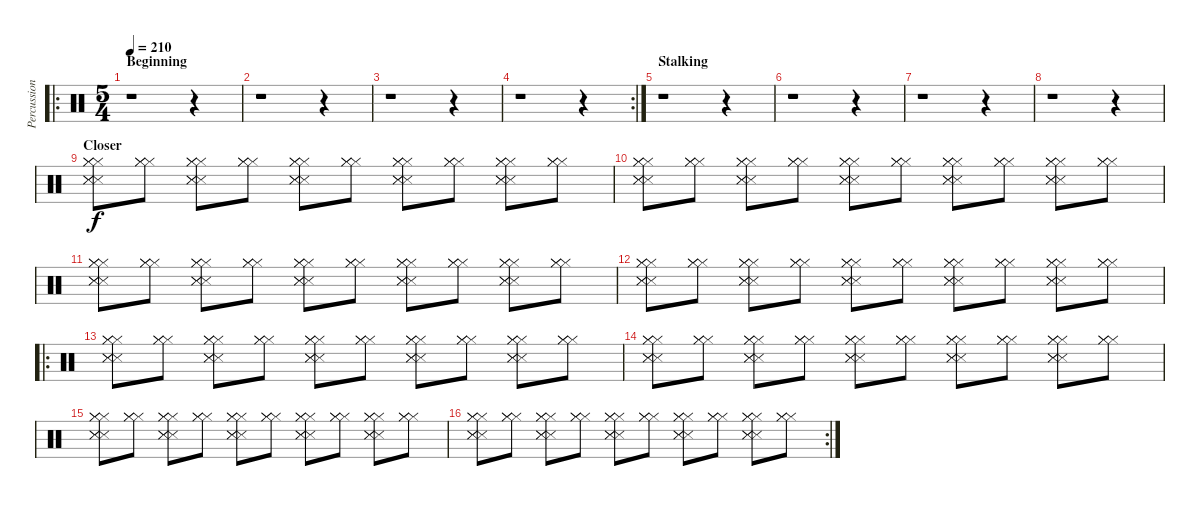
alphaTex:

\track ("Percussion" "Percussion") {instrument percussion}
\staff {score}
\articulation defaults
\ro
\ts (5 4)
\section ("" "Beginning")
\tempo 210
\clef neutral
\ks c
r.1{dy f} r.4 |
r.1 r.4 |
r.1 r.4 |
\rc 2
r.1 r.4 |
\section ("" "Stalking")
r.1 r.4 |
r.1 r.4 |
r.1 r.4 |
r.1 r.4 |
\section ("" "Closer")
("Hi-Hat (closed)" "Hi-Hat (closed)" "Hi-Hat (closed)" "Snare (side stick) 3" "Snare (side stick) 3" "Snare (side stick) 3").8 ("Hi-Hat (closed)" "Hi-Hat (closed)" "Hi-Hat (closed)").8 ("Hi-Hat (closed)" "Hi-Hat (closed)" "Hi-Hat (closed)" "Snare (side stick) 3" "Snare (side stick) 3" "Snare (side stick) 3").8 ("Hi-Hat (closed)" "Hi-Hat (closed)" "Hi-Hat (closed)").8 ("Hi-Hat (closed)" "Hi-Hat (closed)" "Hi-Hat (closed)" "Snare (side stick) 3" "Snare (side stick) 3" "Snare (side stick) 3").8 ("Hi-Hat (closed)" "Hi-Hat (closed)" "Hi-Hat (closed)").8 ("Hi-Hat (closed)" "Hi-Hat (closed)" "Hi-Hat (closed)" "Snare (side stick) 3" "Snare (side stick) 3" "Snare (side stick) 3").8 ("Hi-Hat (closed)" "Hi-Hat (closed)" "Hi-Hat (closed)").8 ("Hi-Hat (closed)" "Hi-Hat (closed)" "Hi-Hat (closed)" "Snare (side stick) 3" "Snare (side stick) 3" "Snare (side stick) 3").8 ("Hi-Hat (closed)" "Hi-Hat (closed)" "Hi-Hat (closed)").8 |
("Hi-Hat (closed)" "Hi-Hat (closed)" "Hi-Hat (closed)" "Snare (side stick) 3" "Snare (side stick) 3" "Snare (side stick) 3").8 ("Hi-Hat (closed)" "Hi-Hat (closed)" "Hi-Hat (closed)").8 ("Hi-Hat (closed)" "Hi-Hat (closed)" "Hi-Hat (closed)" "Snare (side stick) 3" "Snare (side stick) 3" "Snare (side stick) 3").8 ("Hi-Hat (closed)" "Hi-Hat (closed)" "Hi-Hat (closed)").8 ("Hi-Hat (closed)" "Hi-Hat (closed)" "Hi-Hat (closed)" "Snare (side stick) 3" "Snare (side stick) 3" "Snare (side stick) 3").8 ("Hi-Hat (closed)" "Hi-Hat (closed)" "Hi-Hat (closed)").8 ("Hi-Hat (closed)" "Hi-Hat (closed)" "Hi-Hat (closed)" "Snare (side stick) 3" "Snare (side stick) 3" "Snare (side stick) 3").8 ("Hi-Hat (closed)" "Hi-Hat (closed)" "Hi-Hat (closed)").8 ("Hi-Hat (closed)" "Hi-Hat (closed)" "Hi-Hat (closed)" "Snare (side stick) 3" "Snare (side stick) 3" "Snare (side stick) 3").8 ("Hi-Hat (closed)" "Hi-Hat (closed)" "Hi-Hat (closed)").8 |
("Hi-Hat (closed)" "Hi-Hat (closed)" "Hi-Hat (closed)" "Snare (side stick) 3" "Snare (side stick) 3" "Snare (side stick) 3").8 ("Hi-Hat (closed)" "Hi-Hat (closed)" "Hi-Hat (closed)").8 ("Hi-Hat (closed)" "Hi-Hat (closed)" "Hi-Hat (closed)" "Snare (side stick) 3" "Snare (side stick) 3" "Snare (side stick) 3").8 ("Hi-Hat (closed)" "Hi-Hat (closed)" "Hi-Hat (closed)").8 ("Hi-Hat (closed)" "Hi-Hat (closed)" "Hi-Hat (closed)" "Snare (side stick) 3" "Snare (side stick) 3" "Snare (side stick) 3").8 ("Hi-Hat (closed)" "Hi-Hat (closed)" "Hi-Hat (closed)").8 ("Hi-Hat (closed)" "Hi-Hat (closed)" "Hi-Hat (closed)" "Snare (side stick) 3" "Snare (side stick) 3" "Snare (side stick) 3").8 ("Hi-Hat (closed)" "Hi-Hat (closed)" "Hi-Hat (closed)").8 ("Hi-Hat (closed)" "Hi-Hat (closed)" "Hi-Hat (closed)" "Snare (side stick) 3" "Snare (side stick) 3" "Snare (side stick) 3").8 ("Hi-Hat (closed)" "Hi-Hat (closed)" "Hi-Hat (closed)").8 |
("Hi-Hat (closed)" "Hi-Hat (closed)" "Hi-Hat (closed)" "Snare (side stick) 3" "Snare (side stick) 3" "Snare (side stick) 3").8 ("Hi-Hat (closed)" "Hi-Hat (closed)" "Hi-Hat (closed)").8 ("Hi-Hat (closed)" "Hi-Hat (closed)" "Hi-Hat (closed)" "Snare (side stick) 3" "Snare (side stick) 3" "Snare (side stick) 3").8 ("Hi-Hat (closed)" "Hi-Hat (closed)" "Hi-Hat (closed)").8 ("Hi-Hat (closed)" "Hi-Hat (closed)" "Hi-Hat (closed)" "Snare (side stick) 3" "Snare (side stick) 3" "Snare (side stick) 3").8 ("Hi-Hat (closed)" "Hi-Hat (closed)" "Hi-Hat (closed)").8 ("Hi-Hat (closed)" "Hi-Hat (closed)" "Hi-Hat (closed)" "Snare (side stick) 3" "Snare (side stick) 3" "Snare (side stick) 3").8 ("Hi-Hat (closed)" "Hi-Hat (closed)" "Hi-Hat (closed)").8 ("Hi-Hat (closed)" "Hi-Hat (closed)" "Hi-Hat (closed)" "Snare (side stick) 3" "Snare (side stick) 3" "Snare (side stick) 3").8 ("Hi-Hat (closed)" "Hi-Hat (closed)" "Hi-Hat (closed)").8 |
\ro
("Hi-Hat (closed)" "Hi-Hat (closed)" "Hi-Hat (closed)" "Snare (side stick) 3" "Snare (side stick) 3" "Snare (side stick) 3").8 ("Hi-Hat (closed)" "Hi-Hat (closed)" "Hi-Hat (closed)").8 ("Hi-Hat (closed)" "Hi-Hat (closed)" "Hi-Hat (closed)" "Snare (side stick) 3" "Snare (side stick) 3" "Snare (side stick) 3").8 ("Hi-Hat (closed)" "Hi-Hat (closed)" "Hi-Hat (closed)").8 ("Hi-Hat (closed)" "Hi-Hat (closed)" "Hi-Hat (closed)" "Snare (side stick) 3" "Snare (side stick) 3" "Snare (side stick) 3").8 ("Hi-Hat (closed)" "Hi-Hat (closed)" "Hi-Hat (closed)").8 ("Hi-Hat (closed)" "Hi-Hat (closed)" "Hi-Hat (closed)" "Snare (side stick) 3" "Snare (side stick) 3" "Snare (side stick) 3").8 ("Hi-Hat (closed)" "Hi-Hat (closed)" "Hi-Hat (closed)").8 ("Hi-Hat (closed)" "Hi-Hat (closed)" "Hi-Hat (closed)" "Snare (side stick) 3" "Snare (side stick) 3" "Snare (side stick) 3").8 ("Hi-Hat (closed)" "Hi-Hat (closed)" "Hi-Hat (closed)").8 |
("Hi-Hat (closed)" "Hi-Hat (closed)" "Hi-Hat (closed)" "Snare (side stick) 3" "Snare (side stick) 3" "Snare (side stick) 3").8 ("Hi-Hat (closed)" "Hi-Hat (closed)" "Hi-Hat (closed)").8 ("Hi-Hat (closed)" "Hi-Hat (closed)" "Hi-Hat (closed)" "Snare (side stick) 3" "Snare (side stick) 3" "Snare (side stick) 3").8 ("Hi-Hat (closed)" "Hi-Hat (closed)" "Hi-Hat (closed)").8 ("Hi-Hat (closed)" "Hi-Hat (closed)" "Hi-Hat (closed)" "Snare (side stick) 3" "Snare (side stick) 3" "Snare (side stick) 3").8 ("Hi-Hat (closed)" "Hi-Hat (closed)" "Hi-Hat (closed)").8 ("Hi-Hat (closed)" "Hi-Hat (closed)" "Hi-Hat (closed)" "Snare (side stick) 3" "Snare (side stick) 3" "Snare (side stick) 3").8 ("Hi-Hat (closed)" "Hi-Hat (closed)" "Hi-Hat (closed)").8 ("Hi-Hat (closed)" "Hi-Hat (closed)" "Hi-Hat (closed)" "Snare (side stick) 3" "Snare (side stick) 3" "Snare (side stick) 3").8 ("Hi-Hat (closed)" "Hi-Hat (closed)" "Hi-Hat (closed)").8 |
("Hi-Hat (closed)" "Hi-Hat (closed)" "Hi-Hat (closed)" "Snare (side stick) 3" "Snare (side stick) 3" "Snare (side stick) 3").8 ("Hi-Hat (closed)" "Hi-Hat (closed)" "Hi-Hat (closed)").8 ("Hi-Hat (closed)" "Hi-Hat (closed)" "Hi-Hat (closed)" "Snare (side stick) 3" "Snare (side stick) 3" "Snare (side stick) 3").8 ("Hi-Hat (closed)" "Hi-Hat (closed)" "Hi-Hat (closed)").8 ("Hi-Hat (closed)" "Hi-Hat (closed)" "Hi-Hat (closed)" "Snare (side stick) 3" "Snare (side stick) 3" "Snare (side stick) 3").8 ("Hi-Hat (closed)" "Hi-Hat (closed)" "Hi-Hat (closed)").8 ("Hi-Hat (closed)" "Hi-Hat (closed)" "Hi-Hat (closed)" "Snare (side stick) 3" "Snare (side stick) 3" "Snare (side stick) 3").8 ("Hi-Hat (closed)" "Hi-Hat (closed)" "Hi-Hat (closed)").8 ("Hi-Hat (closed)" "Hi-Hat (closed)" "Hi-Hat (closed)" "Snare (side stick) 3" "Snare (side stick) 3" "Snare (side stick) 3").8 ("Hi-Hat (closed)" "Hi-Hat (closed)" "Hi-Hat (closed)").8 |
\rc 2
("Hi-Hat (closed)" "Hi-Hat (closed)" "Hi-Hat (closed)" "Snare (side stick) 3" "Snare (side stick) 3" "Snare (side stick) 3").8 ("Hi-Hat (closed)" "Hi-Hat (closed)" "Hi-Hat (closed)").8 ("Hi-Hat (closed)" "Hi-Hat (closed)" "Hi-Hat (closed)" "Snare (side stick) 3" "Snare (side stick) 3" "Snare (side stick) 3").8 ("Hi-Hat (closed)" "Hi-Hat (closed)" "Hi-Hat (closed)").8 ("Hi-Hat (closed)" "Hi-Hat (closed)" "Hi-Hat (closed)" "Snare (side stick) 3" "Snare (side stick) 3" "Snare (side stick) 3").8 ("Hi-Hat (closed)" "Hi-Hat (closed)" "Hi-Hat (closed)").8 ("Hi-Hat (closed)" "Hi-Hat (closed)" "Hi-Hat (closed)" "Snare (side stick) 3" "Snare (side stick) 3" "Snare (side stick) 3").8 ("Hi-Hat (closed)" "Hi-Hat (closed)" "Hi-Hat (closed)").8 ("Hi-Hat (closed)" "Hi-Hat (closed)" "Hi-Hat (closed)" "Snare (side stick) 3" "Snare (side stick) 3" "Snare (side stick) 3").8 ("Hi-Hat (closed)" "Hi-Hat (closed)" "Hi-Hat (closed)").8
